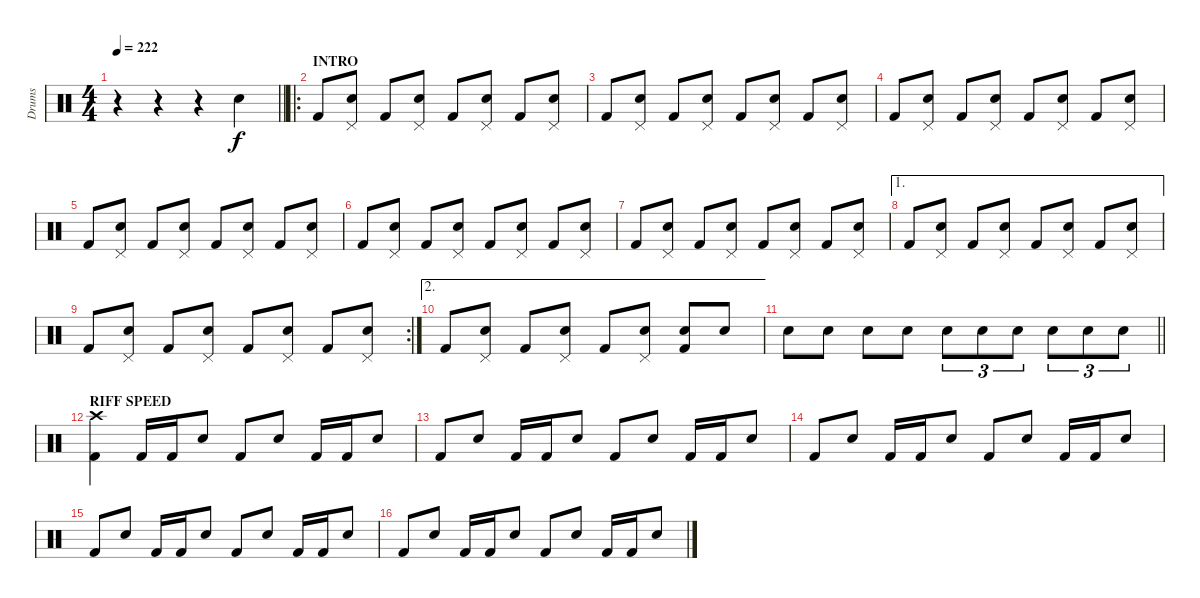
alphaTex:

\track ("Drums" "Drums") {instrument percussion}
\staff {score}
\articulation defaults
\ts (4 4)
\tempo 222
\clef neutral
\barLineRight lightlight
\ks c
r.4{dy f} r.4 r.4 "Electric Snare (hit)".4 |
\ro
\section ("" "INTRO")
"Kick (hit) 2".8 ("Pedal Hi-Hat (hit)" "Snare (hit) 2").8 "Kick (hit) 2".8 ("Pedal Hi-Hat (hit)" "Snare (hit) 2").8 "Kick (hit) 2".8 ("Pedal Hi-Hat (hit)" "Snare (hit) 2").8 "Kick (hit) 2".8 ("Pedal Hi-Hat (hit)" "Snare (hit) 2").8 |
"Kick (hit) 2".8 ("Pedal Hi-Hat (hit)" "Snare (hit) 2").8 "Kick (hit) 2".8 ("Pedal Hi-Hat (hit)" "Snare (hit) 2").8 "Kick (hit) 2".8 ("Pedal Hi-Hat (hit)" "Snare (hit) 2").8 "Kick (hit) 2".8 ("Pedal Hi-Hat (hit)" "Snare (hit) 2").8 |
"Kick (hit) 2".8 ("Pedal Hi-Hat (hit)" "Snare (hit) 2").8 "Kick (hit) 2".8 ("Pedal Hi-Hat (hit)" "Snare (hit) 2").8 "Kick (hit) 2".8 ("Pedal Hi-Hat (hit)" "Snare (hit) 2").8 "Kick (hit) 2".8 ("Pedal Hi-Hat (hit)" "Snare (hit) 2").8 |
"Kick (hit) 2".8 ("Pedal Hi-Hat (hit)" "Snare (hit) 2").8 "Kick (hit) 2".8 ("Pedal Hi-Hat (hit)" "Snare (hit) 2").8 "Kick (hit) 2".8 ("Pedal Hi-Hat (hit)" "Snare (hit) 2").8 "Kick (hit) 2".8 ("Pedal Hi-Hat (hit)" "Snare (hit) 2").8 |
"Kick (hit) 2".8 ("Pedal Hi-Hat (hit)" "Snare (hit) 2").8 "Kick (hit) 2".8 ("Pedal Hi-Hat (hit)" "Snare (hit) 2").8 "Kick (hit) 2".8 ("Pedal Hi-Hat (hit)" "Snare (hit) 2").8 "Kick (hit) 2".8 ("Pedal Hi-Hat (hit)" "Snare (hit) 2").8 |
"Kick (hit) 2".8 ("Pedal Hi-Hat (hit)" "Snare (hit) 2").8 "Kick (hit) 2".8 ("Pedal Hi-Hat (hit)" "Snare (hit) 2").8 "Kick (hit) 2".8 ("Pedal Hi-Hat (hit)" "Snare (hit) 2").8 "Kick (hit) 2".8 ("Pedal Hi-Hat (hit)" "Snare (hit) 2").8 |
\ae 1 "Kick (hit) 2".8
("Pedal Hi-Hat (hit)" "Snare (hit) 2").8 "Kick (hit) 2".8 ("Pedal Hi-Hat (hit)" "Snare (hit) 2").8 "Kick (hit) 2".8 ("Pedal Hi-Hat (hit)" "Snare (hit) 2").8 "Kick (hit) 2".8 ("Pedal Hi-Hat (hit)" "Snare (hit) 2").8 |
\rc 2 "Kick (hit) 2".8
("Pedal Hi-Hat (hit)" "Snare (hit) 2").8 "Kick (hit) 2".8 ("Pedal Hi-Hat (hit)" "Snare (hit) 2").8 "Kick (hit) 2".8 ("Pedal Hi-Hat (hit)" "Snare (hit) 2").8 "Kick (hit) 2".8 ("Pedal Hi-Hat (hit)" "Snare (hit) 2").8 |
\ae 2 "Kick (hit) 2".8
("Pedal Hi-Hat (hit)" "Snare (hit) 2").8 "Kick (hit) 2".8 ("Pedal Hi-Hat (hit)" "Snare (hit) 2").8 "Kick (hit) 2".8 ("Pedal Hi-Hat (hit)" "Snare (hit) 2").8 ("Snare (hit) 2" "Kick (hit) 2").8 "Snare (hit) 2".8 |
\barLineRight lightlight "Snare (hit) 2".8 "Snare (hit) 2".8 "Snare (hit) 2".8 "Snare (hit) 2".8 "Snare (hit) 2".8{tu (3 2)} "Snare (hit) 2".8{tu (3 2)} "Snare (hit) 2".8{tu (3 2)} "Snare (hit) 2".8{tu (3 2)} "Snare (hit) 2".8{tu (3 2)} "Snare (hit) 2".8{tu (3 2)}
|
\section ("" "RIFF SPEED")
("Crash high (hit)" "Kick (hit) 2").4 "Kick (hit) 2".16 "Kick (hit) 2".16 "Snare (hit) 2".8 "Kick (hit) 2".8 "Snare (hit) 2".8 "Kick (hit) 2".16 "Kick (hit) 2".16 "Snare (hit) 2".8 |
"Kick (hit) 2".8 "Snare (hit) 2".8 "Kick (hit) 2".16 "Kick (hit) 2".16 "Snare (hit) 2".8 "Kick (hit) 2".8 "Snare (hit) 2".8 "Kick (hit) 2".16 "Kick (hit) 2".16 "Snare (hit) 2".8 |
"Kick (hit) 2".8 "Snare (hit) 2".8 "Kick (hit) 2".16 "Kick (hit) 2".16 "Snare (hit) 2".8 "Kick (hit) 2".8 "Snare (hit) 2".8 "Kick (hit) 2".16 "Kick (hit) 2".16 "Snare (hit) 2".8 |
"Kick (hit) 2".8 "Snare (hit) 2".8 "Kick (hit) 2".16 "Kick (hit) 2".16 "Snare (hit) 2".8 "Kick (hit) 2".8 "Snare (hit) 2".8 "Kick (hit) 2".16 "Kick (hit) 2".16 "Snare (hit) 2".8 |
"Kick (hit) 2".8 "Snare (hit) 2".8 "Kick (hit) 2".16 "Kick (hit) 2".16 "Snare (hit) 2".8 "Kick (hit) 2".8 "Snare (hit) 2".8 "Kick (hit) 2".16 "Kick (hit) 2".16 "Snare (hit) 2".8
